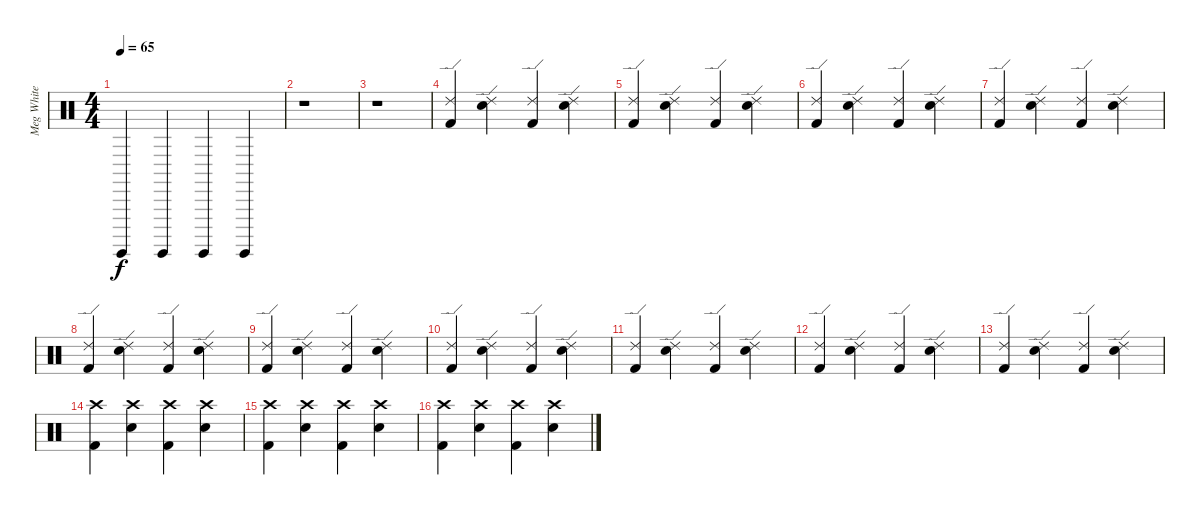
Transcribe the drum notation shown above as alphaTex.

\track ("Meg White" "Meg White") {instrument percussion}
\staff {score}
\articulation defaults
\ts (4 4)
\tempo 65
\clef neutral
\ks c "Surdo (hit)".4{dy f} "Surdo (hit)".4 "Surdo (hit)".4 "Surdo (hit)".4
|
r.1 |
r.1 |
("Kick (hit) 2" "Ride (edge) 2").4 ("Electric Snare (hit)" "Ride (edge) 2").4 ("Kick (hit) 2" "Ride (edge) 2").4 ("Electric Snare (hit)" "Ride (edge) 2").4 |
("Kick (hit) 2" "Ride (edge) 2").4 ("Electric Snare (hit)" "Ride (edge) 2").4 ("Kick (hit) 2" "Ride (edge) 2").4 ("Electric Snare (hit)" "Ride (edge) 2").4 |
("Kick (hit) 2" "Ride (edge) 2").4 ("Electric Snare (hit)" "Ride (edge) 2").4 ("Kick (hit) 2" "Ride (edge) 2").4 ("Electric Snare (hit)" "Ride (edge) 2").4 |
("Kick (hit) 2" "Ride (edge) 2").4 ("Electric Snare (hit)" "Ride (edge) 2").4 ("Kick (hit) 2" "Ride (edge) 2").4 ("Electric Snare (hit)" "Ride (edge) 2").4 |
("Kick (hit) 2" "Ride (edge) 2").4 ("Electric Snare (hit)" "Ride (edge) 2").4 ("Kick (hit) 2" "Ride (edge) 2").4 ("Electric Snare (hit)" "Ride (edge) 2").4 |
("Kick (hit) 2" "Ride (edge) 2").4 ("Electric Snare (hit)" "Ride (edge) 2").4 ("Kick (hit) 2" "Ride (edge) 2").4 ("Electric Snare (hit)" "Ride (edge) 2").4 |
("Kick (hit) 2" "Ride (edge) 2").4 ("Electric Snare (hit)" "Ride (edge) 2").4 ("Kick (hit) 2" "Ride (edge) 2").4 ("Electric Snare (hit)" "Ride (edge) 2").4 |
("Kick (hit) 2" "Ride (edge) 2").4 ("Electric Snare (hit)" "Ride (edge) 2").4 ("Kick (hit) 2" "Ride (edge) 2").4 ("Electric Snare (hit)" "Ride (edge) 2").4 |
("Kick (hit) 2" "Ride (edge) 2").4 ("Electric Snare (hit)" "Ride (edge) 2").4 ("Kick (hit) 2" "Ride (edge) 2").4 ("Electric Snare (hit)" "Ride (edge) 2").4 |
("Kick (hit) 2" "Ride (edge) 2").4 ("Electric Snare (hit)" "Ride (edge) 2").4 ("Kick (hit) 2" "Ride (edge) 2").4 ("Electric Snare (hit)" "Ride (edge) 2").4 |
("Kick (hit) 2" "Crash high (hit)").4 ("Electric Snare (hit)" "Crash high (hit)").4 ("Kick (hit) 2" "Crash high (hit)").4 ("Electric Snare (hit)" "Crash high (hit)").4 |
("Kick (hit) 2" "Crash high (hit)").4 ("Electric Snare (hit)" "Crash high (hit)").4 ("Kick (hit) 2" "Crash high (hit)").4 ("Electric Snare (hit)" "Crash high (hit)").4 |
("Kick (hit) 2" "Crash high (hit)").4 ("Electric Snare (hit)" "Crash high (hit)").4 ("Kick (hit) 2" "Crash high (hit)").4 ("Electric Snare (hit)" "Crash high (hit)").4
